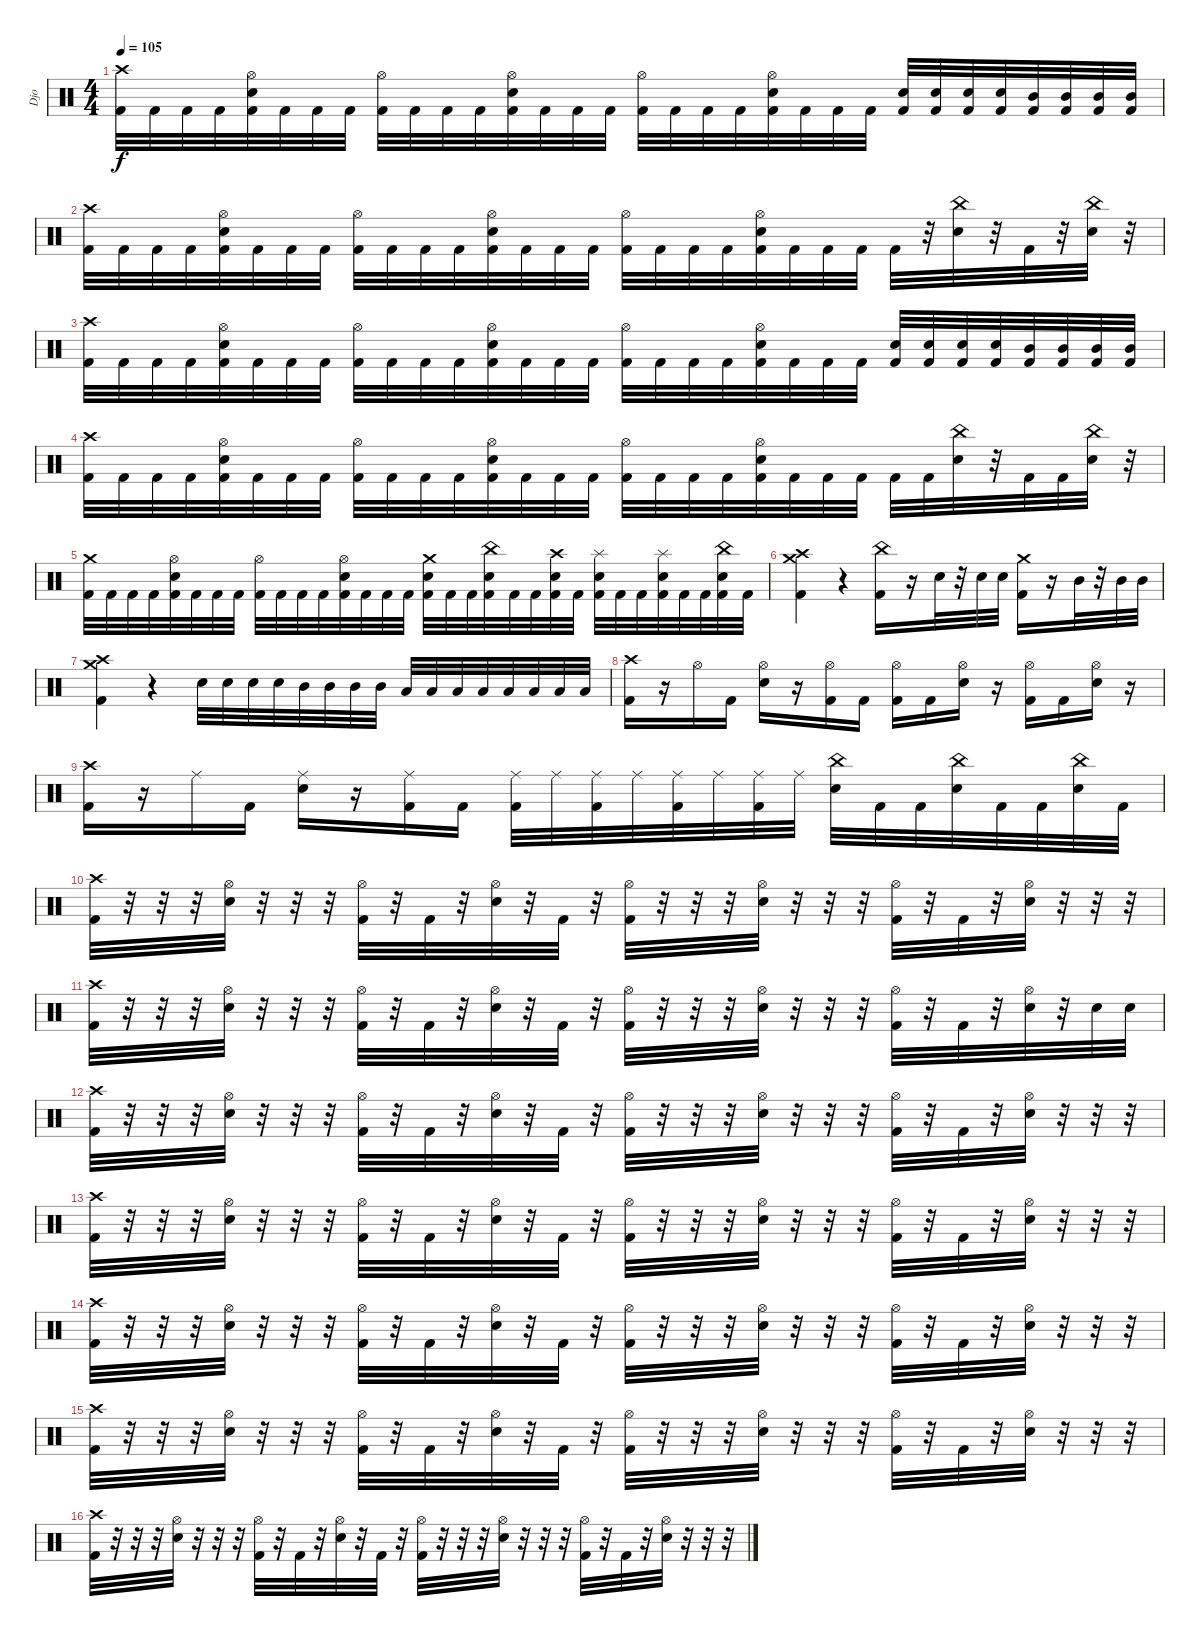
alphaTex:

\track ("Djo" "Djo") {instrument percussion}
\staff {score}
\articulation defaults
\ts (4 4)
\tempo 105
\clef neutral
\ks c
("Crash high (hit)" "Kick (hit) 2").32{dy f} "Kick (hit) 2".32 "Kick (hit) 2".32 "Kick (hit) 2".32 ("Hi-Hat (open)" "Snare (hit) 2" "Kick (hit) 2").32 "Kick (hit) 2".32 "Kick (hit) 2".32 "Kick (hit) 2".32 ("Hi-Hat (open)" "Kick (hit) 2").32 "Kick (hit) 2".32 "Kick (hit) 2".32 "Kick (hit) 2".32 ("Hi-Hat (open)" "Snare (hit) 2" "Kick (hit) 2").32 "Kick (hit) 2".32 "Kick (hit) 2".32 "Kick (hit) 2".32 ("Hi-Hat (open)" "Kick (hit) 2").32 "Kick (hit) 2".32 "Kick (hit) 2".32 "Kick (hit) 2".32 ("Hi-Hat (open)" "Snare (hit) 2" "Kick (hit) 2").32 "Kick (hit) 2".32 "Kick (hit) 2".32 "Kick (hit) 2".32 ("Snare (hit) 2" "Kick (hit) 2").32 ("Snare (hit) 2" "Kick (hit) 2").32 ("Snare (hit) 2" "Kick (hit) 2").32 ("Snare (hit) 2" "Kick (hit) 2").32 ("Mid Tom (hit)" "Kick (hit) 2").32 ("Mid Tom (hit)" "Kick (hit) 2").32 ("Mid Tom (hit)" "Kick (hit) 2").32 ("Mid Tom (hit)" "Kick (hit) 2").32 |
("Crash high (hit)" "Kick (hit) 2").32 "Kick (hit) 2".32 "Kick (hit) 2".32 "Kick (hit) 2".32 ("Hi-Hat (open)" "Snare (hit) 2" "Kick (hit) 2").32 "Kick (hit) 2".32 "Kick (hit) 2".32 "Kick (hit) 2".32 ("Hi-Hat (open)" "Kick (hit) 2").32 "Kick (hit) 2".32 "Kick (hit) 2".32 "Kick (hit) 2".32 ("Hi-Hat (open)" "Snare (hit) 2" "Kick (hit) 2").32 "Kick (hit) 2".32 "Kick (hit) 2".32 "Kick (hit) 2".32 ("Hi-Hat (open)" "Kick (hit) 2").32 "Kick (hit) 2".32 "Kick (hit) 2".32 "Kick (hit) 2".32 ("Hi-Hat (open)" "Snare (hit) 2" "Kick (hit) 2").32 "Kick (hit) 2".32 "Kick (hit) 2".32 "Kick (hit) 2".32 "Kick (hit) 2".32 r.32 ("China (hit)" "Snare (hit) 2").32 r.32 "Kick (hit) 2".32 r.32 ("China (hit)" "Snare (hit) 2").32 r.32 |
("Crash high (hit)" "Kick (hit) 2").32 "Kick (hit) 2".32 "Kick (hit) 2".32 "Kick (hit) 2".32 ("Hi-Hat (open)" "Snare (hit) 2" "Kick (hit) 2").32 "Kick (hit) 2".32 "Kick (hit) 2".32 "Kick (hit) 2".32 ("Hi-Hat (open)" "Kick (hit) 2").32 "Kick (hit) 2".32 "Kick (hit) 2".32 "Kick (hit) 2".32 ("Hi-Hat (open)" "Snare (hit) 2" "Kick (hit) 2").32 "Kick (hit) 2".32 "Kick (hit) 2".32 "Kick (hit) 2".32 ("Hi-Hat (open)" "Kick (hit) 2").32 "Kick (hit) 2".32 "Kick (hit) 2".32 "Kick (hit) 2".32 ("Hi-Hat (open)" "Snare (hit) 2" "Kick (hit) 2").32 "Kick (hit) 2".32 "Kick (hit) 2".32 "Kick (hit) 2".32 ("Snare (hit) 2" "Kick (hit) 2").32 ("Snare (hit) 2" "Kick (hit) 2").32 ("Snare (hit) 2" "Kick (hit) 2").32 ("Snare (hit) 2" "Kick (hit) 2").32 ("Mid Tom (hit)" "Kick (hit) 2").32 ("Mid Tom (hit)" "Kick (hit) 2").32 ("Mid Tom (hit)" "Kick (hit) 2").32 ("Mid Tom (hit)" "Kick (hit) 2").32 |
("Crash high (hit)" "Kick (hit) 2").32 "Kick (hit) 2".32 "Kick (hit) 2".32 "Kick (hit) 2".32 ("Hi-Hat (open)" "Snare (hit) 2" "Kick (hit) 2").32 "Kick (hit) 2".32 "Kick (hit) 2".32 "Kick (hit) 2".32 ("Hi-Hat (open)" "Kick (hit) 2").32 "Kick (hit) 2".32 "Kick (hit) 2".32 "Kick (hit) 2".32 ("Hi-Hat (open)" "Snare (hit) 2" "Kick (hit) 2").32 "Kick (hit) 2".32 "Kick (hit) 2".32 "Kick (hit) 2".32 ("Hi-Hat (open)" "Kick (hit) 2").32 "Kick (hit) 2".32 "Kick (hit) 2".32 "Kick (hit) 2".32 ("Hi-Hat (open)" "Snare (hit) 2" "Kick (hit) 2").32 "Kick (hit) 2".32 "Kick (hit) 2".32 "Kick (hit) 2".32 "Kick (hit) 2".32 "Kick (hit) 2".32 ("China (hit)" "Snare (hit) 2").32 r.32 "Kick (hit) 2".32 "Kick (hit) 2".32 ("China (hit)" "Snare (hit) 2").32 r.32 |
("Crash medium (hit)" "Kick (hit) 2").32 "Kick (hit) 2".32 "Kick (hit) 2".32 "Kick (hit) 2".32 ("Hi-Hat (open)" "Snare (hit) 2" "Kick (hit) 2").32 "Kick (hit) 2".32 "Kick (hit) 2".32 "Kick (hit) 2".32 ("Hi-Hat (open)" "Kick (hit) 2").32 "Kick (hit) 2".32 "Kick (hit) 2".32 "Kick (hit) 2".32 ("Hi-Hat (open)" "Snare (hit) 2" "Kick (hit) 2").32 "Kick (hit) 2".32 "Kick (hit) 2".32 "Kick (hit) 2".32 ("Crash medium (hit)" "Snare (hit) 2" "Kick (hit) 2").32 "Kick (hit) 2".32 "Kick (hit) 2".32 ("China (hit)" "Snare (hit) 2" "Kick (hit) 2").32 "Kick (hit) 2".32 "Kick (hit) 2".32 ("Crash high (hit)" "Snare (hit) 2" "Kick (hit) 2").32 "Kick (hit) 2".32 ("Splash (hit)" "Snare (hit) 2" "Kick (hit) 2").32 "Kick (hit) 2".32 "Kick (hit) 2".32 ("Splash (hit)" "Snare (hit) 2" "Kick (hit) 2").32 "Kick (hit) 2".32 "Kick (hit) 2".32 ("China (hit)" "Snare (hit) 2" "Kick (hit) 2").32 "Kick (hit) 2".32 |
\section ("" "")
("Crash high (hit)" "Crash medium (hit)" "Kick (hit) 2").4 r.4 ("China (hit)" "Kick (hit) 2").16 r.16 "Snare (hit) 2".32 r.32 "Snare (hit) 2".32 "Snare (hit) 2".32 ("Crash medium (hit)" "Kick (hit) 2").16 r.16 "Mid Tom (hit)".32 r.32 "Mid Tom (hit)".32 "Mid Tom (hit)".32 |
("Crash high (hit)" "Crash medium (hit)" "Kick (hit) 2").4 r.4 "Snare (hit) 2".32 "Snare (hit) 2".32 "Snare (hit) 2".32 "Snare (hit) 2".32 "Mid Tom (hit)".32 "Mid Tom (hit)".32 "Mid Tom (hit)".32 "Mid Tom (hit)".32 "Low Tom (hit)".32 "Low Tom (hit)".32 "Low Tom (hit)".32 "Low Tom (hit)".32 "Low Floor Tom (hit)".32 "Low Floor Tom (hit)".32 "Low Floor Tom (hit)".32 "Low Floor Tom (hit)".32 |
("Crash high (hit)" "Kick (hit) 2").16 r.16 "Hi-Hat (open)".16 "Kick (hit) 2".16 ("Hi-Hat (open)" "Snare (hit) 2").16 r.16 ("Hi-Hat (open)" "Kick (hit) 2").16 "Kick (hit) 2".16 ("Hi-Hat (open)" "Kick (hit) 2").16 "Kick (hit) 2".16 ("Hi-Hat (open)" "Snare (hit) 2").16 r.16 ("Hi-Hat (open)" "Kick (hit) 2").16 "Kick (hit) 2".16 ("Hi-Hat (open)" "Snare (hit) 2").16 r.16 |
("Crash high (hit)" "Kick (hit) 2").16 r.16 "Ride (middle)".16 "Kick (hit) 2".16 ("Ride (middle)" "Snare (hit) 2").16 r.16 ("Ride (middle)" "Kick (hit) 2").16 "Kick (hit) 2".16 ("Ride (middle)" "Kick (hit) 2").32 "Ride (middle)".32 ("Ride (middle)" "Kick (hit) 2").32 "Ride (middle)".32 ("Ride (middle)" "Kick (hit) 2").32 "Ride (middle)".32 ("Ride (middle)" "Kick (hit) 2").32 "Ride (middle)".32 ("China (hit)" "Snare (hit) 2").32 "Kick (hit) 2".32 "Kick (hit) 2".32 ("China (hit)" "Snare (hit) 2").32 "Kick (hit) 2".32 "Kick (hit) 2".32 ("China (hit)" "Snare (hit) 2").32 "Kick (hit) 2".32 |
("Crash high (hit)" "Kick (hit) 2").32 r.32 r.32 r.32 ("Hi-Hat (open)" "Snare (hit) 2").32 r.32 r.32 r.32 ("Hi-Hat (open)" "Kick (hit) 2").32 r.32 "Kick (hit) 2".32 r.32 ("Hi-Hat (open)" "Snare (hit) 2").32 r.32 "Kick (hit) 2".32 r.32 ("Hi-Hat (open)" "Kick (hit) 2").32 r.32 r.32 r.32 ("Hi-Hat (open)" "Snare (hit) 2").32 r.32 r.32 r.32 ("Hi-Hat (open)" "Kick (hit) 2").32 r.32 "Kick (hit) 2".32 r.32 ("Hi-Hat (open)" "Snare (hit) 2").32 r.32 r.32 r.32 |
("Crash high (hit)" "Kick (hit) 2").32 r.32 r.32 r.32 ("Hi-Hat (open)" "Snare (hit) 2").32 r.32 r.32 r.32 ("Hi-Hat (open)" "Kick (hit) 2").32 r.32 "Kick (hit) 2".32 r.32 ("Hi-Hat (open)" "Snare (hit) 2").32 r.32 "Kick (hit) 2".32 r.32 ("Hi-Hat (open)" "Kick (hit) 2").32 r.32 r.32 r.32 ("Hi-Hat (open)" "Snare (hit) 2").32 r.32 r.32 r.32 ("Hi-Hat (open)" "Kick (hit) 2").32 r.32 "Kick (hit) 2".32 r.32 ("Hi-Hat (open)" "Snare (hit) 2").32 r.32 "Snare (hit) 2".32 "Snare (hit) 2".32 |
("Crash high (hit)" "Kick (hit) 2").32 r.32 r.32 r.32 ("Hi-Hat (open)" "Snare (hit) 2").32 r.32 r.32 r.32 ("Hi-Hat (open)" "Kick (hit) 2").32 r.32 "Kick (hit) 2".32 r.32 ("Hi-Hat (open)" "Snare (hit) 2").32 r.32 "Kick (hit) 2".32 r.32 ("Hi-Hat (open)" "Kick (hit) 2").32 r.32 r.32 r.32 ("Hi-Hat (open)" "Snare (hit) 2").32 r.32 r.32 r.32 ("Hi-Hat (open)" "Kick (hit) 2").32 r.32 "Kick (hit) 2".32 r.32 ("Hi-Hat (open)" "Snare (hit) 2").32 r.32 r.32 r.32 |
("Crash high (hit)" "Kick (hit) 2").32 r.32 r.32 r.32 ("Hi-Hat (open)" "Snare (hit) 2").32 r.32 r.32 r.32 ("Hi-Hat (open)" "Kick (hit) 2").32 r.32 "Kick (hit) 2".32 r.32 ("Hi-Hat (open)" "Snare (hit) 2").32 r.32 "Kick (hit) 2".32 r.32 ("Hi-Hat (open)" "Kick (hit) 2").32 r.32 r.32 r.32 ("Hi-Hat (open)" "Snare (hit) 2").32 r.32 r.32 r.32 ("Hi-Hat (open)" "Kick (hit) 2").32 r.32 "Kick (hit) 2".32 r.32 ("Hi-Hat (open)" "Snare (hit) 2").32 r.32 r.32 r.32 |
("Crash high (hit)" "Kick (hit) 2").32 r.32 r.32 r.32 ("Hi-Hat (open)" "Snare (hit) 2").32 r.32 r.32 r.32 ("Hi-Hat (open)" "Kick (hit) 2").32 r.32 "Kick (hit) 2".32 r.32 ("Hi-Hat (open)" "Snare (hit) 2").32 r.32 "Kick (hit) 2".32 r.32 ("Hi-Hat (open)" "Kick (hit) 2").32 r.32 r.32 r.32 ("Hi-Hat (open)" "Snare (hit) 2").32 r.32 r.32 r.32 ("Hi-Hat (open)" "Kick (hit) 2").32 r.32 "Kick (hit) 2".32 r.32 ("Hi-Hat (open)" "Snare (hit) 2").32 r.32 r.32 r.32 |
("Crash high (hit)" "Kick (hit) 2").32 r.32 r.32 r.32 ("Hi-Hat (open)" "Snare (hit) 2").32 r.32 r.32 r.32 ("Hi-Hat (open)" "Kick (hit) 2").32 r.32 "Kick (hit) 2".32 r.32 ("Hi-Hat (open)" "Snare (hit) 2").32 r.32 "Kick (hit) 2".32 r.32 ("Hi-Hat (open)" "Kick (hit) 2").32 r.32 r.32 r.32 ("Hi-Hat (open)" "Snare (hit) 2").32 r.32 r.32 r.32 ("Hi-Hat (open)" "Kick (hit) 2").32 r.32 "Kick (hit) 2".32 r.32 ("Hi-Hat (open)" "Snare (hit) 2").32 r.32 r.32 r.32 |
("Crash high (hit)" "Kick (hit) 2").32 r.32 r.32 r.32 ("Hi-Hat (open)" "Snare (hit) 2").32 r.32 r.32 r.32 ("Hi-Hat (open)" "Kick (hit) 2").32 r.32 "Kick (hit) 2".32 r.32 ("Hi-Hat (open)" "Snare (hit) 2").32 r.32 "Kick (hit) 2".32 r.32 ("Hi-Hat (open)" "Kick (hit) 2").32 r.32 r.32 r.32 ("Hi-Hat (open)" "Snare (hit) 2").32 r.32 r.32 r.32 ("Hi-Hat (open)" "Kick (hit) 2").32 r.32 "Kick (hit) 2".32 r.32 ("Hi-Hat (open)" "Snare (hit) 2").32 r.32 r.32 r.32
